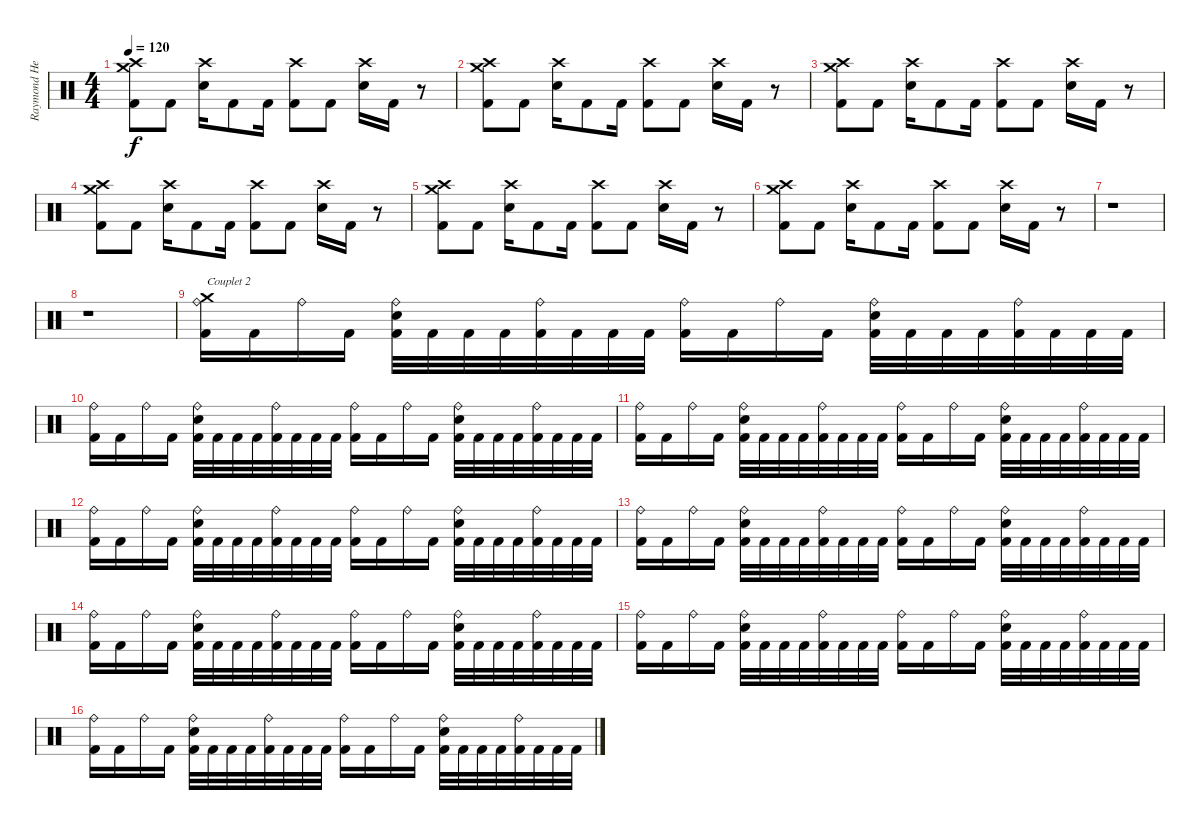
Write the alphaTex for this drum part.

\track ("Raymond Herrera" "Raymond He") {instrument percussion}
\staff {score}
\articulation defaults
\ts (4 4)
\tempo 120
\clef neutral
\ks c
("Crash medium (hit)" "Crash high (hit)" "Kick (hit) 2").8{dy f} "Kick (hit) 2".8 ("Crash high (hit)" "Electric Snare (hit)").16 "Kick (hit) 2".8 "Kick (hit) 2".16 ("Crash high (hit)" "Kick (hit) 2").8 "Kick (hit) 2".8 ("Crash high (hit)" "Electric Snare (hit)").16 "Kick (hit) 2".16 r.8 |
("Crash medium (hit)" "Crash high (hit)" "Kick (hit) 2").8 "Kick (hit) 2".8 ("Crash high (hit)" "Electric Snare (hit)").16 "Kick (hit) 2".8 "Kick (hit) 2".16 ("Crash high (hit)" "Kick (hit) 2").8 "Kick (hit) 2".8 ("Crash high (hit)" "Electric Snare (hit)").16 "Kick (hit) 2".16 r.8 |
("Crash medium (hit)" "Crash high (hit)" "Kick (hit) 2").8 "Kick (hit) 2".8 ("Crash high (hit)" "Electric Snare (hit)").16 "Kick (hit) 2".8 "Kick (hit) 2".16 ("Crash high (hit)" "Kick (hit) 2").8 "Kick (hit) 2".8 ("Crash high (hit)" "Electric Snare (hit)").16 "Kick (hit) 2".16 r.8 |
("Crash medium (hit)" "Crash high (hit)" "Kick (hit) 2").8 "Kick (hit) 2".8 ("Crash high (hit)" "Electric Snare (hit)").16 "Kick (hit) 2".8 "Kick (hit) 2".16 ("Crash high (hit)" "Kick (hit) 2").8 "Kick (hit) 2".8 ("Crash high (hit)" "Electric Snare (hit)").16 "Kick (hit) 2".16 r.8 |
("Crash medium (hit)" "Crash high (hit)" "Kick (hit) 2").8 "Kick (hit) 2".8 ("Crash high (hit)" "Electric Snare (hit)").16 "Kick (hit) 2".8 "Kick (hit) 2".16 ("Crash high (hit)" "Kick (hit) 2").8 "Kick (hit) 2".8 ("Crash high (hit)" "Electric Snare (hit)").16 "Kick (hit) 2".16 r.8 |
("Crash medium (hit)" "Crash high (hit)" "Kick (hit) 2").8 "Kick (hit) 2".8 ("Crash high (hit)" "Electric Snare (hit)").16 "Kick (hit) 2".8 "Kick (hit) 2".16 ("Crash high (hit)" "Kick (hit) 2").8 "Kick (hit) 2".8 ("Crash high (hit)" "Electric Snare (hit)").16 "Kick (hit) 2".16 r.8 |
r.1 |
r.1 |
("Crash medium (hit)" "Ride (bell)" "Kick (hit) 2").16{txt "Couplet 2"} "Kick (hit) 2".16 "Ride (bell)".16 "Kick (hit) 2".16 ("Electric Snare (hit)" "Ride (bell)" "Kick (hit) 2").32 "Kick (hit) 2".32 "Kick (hit) 2".32 "Kick (hit) 2".32 ("Ride (bell)" "Kick (hit) 2").32 "Kick (hit) 2".32 "Kick (hit) 2".32 "Kick (hit) 2".32 ("Ride (bell)" "Kick (hit) 2").16 "Kick (hit) 2".16 "Ride (bell)".16 "Kick (hit) 2".16 ("Electric Snare (hit)" "Ride (bell)" "Kick (hit) 2").32 "Kick (hit) 2".32 "Kick (hit) 2".32 "Kick (hit) 2".32 ("Ride (bell)" "Kick (hit) 2").32 "Kick (hit) 2".32 "Kick (hit) 2".32 "Kick (hit) 2".32 |
("Ride (bell)" "Kick (hit) 2").16 "Kick (hit) 2".16 "Ride (bell)".16 "Kick (hit) 2".16 ("Electric Snare (hit)" "Ride (bell)" "Kick (hit) 2").32 "Kick (hit) 2".32 "Kick (hit) 2".32 "Kick (hit) 2".32 ("Ride (bell)" "Kick (hit) 2").32 "Kick (hit) 2".32 "Kick (hit) 2".32 "Kick (hit) 2".32 ("Ride (bell)" "Kick (hit) 2").16 "Kick (hit) 2".16 "Ride (bell)".16 "Kick (hit) 2".16 ("Electric Snare (hit)" "Ride (bell)" "Kick (hit) 2").32 "Kick (hit) 2".32 "Kick (hit) 2".32 "Kick (hit) 2".32 ("Ride (bell)" "Kick (hit) 2").32 "Kick (hit) 2".32 "Kick (hit) 2".32 "Kick (hit) 2".32 |
("Ride (bell)" "Kick (hit) 2").16 "Kick (hit) 2".16 "Ride (bell)".16 "Kick (hit) 2".16 ("Electric Snare (hit)" "Ride (bell)" "Kick (hit) 2").32 "Kick (hit) 2".32 "Kick (hit) 2".32 "Kick (hit) 2".32 ("Ride (bell)" "Kick (hit) 2").32 "Kick (hit) 2".32 "Kick (hit) 2".32 "Kick (hit) 2".32 ("Ride (bell)" "Kick (hit) 2").16 "Kick (hit) 2".16 "Ride (bell)".16 "Kick (hit) 2".16 ("Electric Snare (hit)" "Ride (bell)" "Kick (hit) 2").32 "Kick (hit) 2".32 "Kick (hit) 2".32 "Kick (hit) 2".32 ("Ride (bell)" "Kick (hit) 2").32 "Kick (hit) 2".32 "Kick (hit) 2".32 "Kick (hit) 2".32 |
("Ride (bell)" "Kick (hit) 2").16 "Kick (hit) 2".16 "Ride (bell)".16 "Kick (hit) 2".16 ("Electric Snare (hit)" "Ride (bell)" "Kick (hit) 2").32 "Kick (hit) 2".32 "Kick (hit) 2".32 "Kick (hit) 2".32 ("Ride (bell)" "Kick (hit) 2").32 "Kick (hit) 2".32 "Kick (hit) 2".32 "Kick (hit) 2".32 ("Ride (bell)" "Kick (hit) 2").16 "Kick (hit) 2".16 "Ride (bell)".16 "Kick (hit) 2".16 ("Electric Snare (hit)" "Ride (bell)" "Kick (hit) 2").32 "Kick (hit) 2".32 "Kick (hit) 2".32 "Kick (hit) 2".32 ("Ride (bell)" "Kick (hit) 2").32 "Kick (hit) 2".32 "Kick (hit) 2".32 "Kick (hit) 2".32 |
("Ride (bell)" "Kick (hit) 2").16 "Kick (hit) 2".16 "Ride (bell)".16 "Kick (hit) 2".16 ("Electric Snare (hit)" "Ride (bell)" "Kick (hit) 2").32 "Kick (hit) 2".32 "Kick (hit) 2".32 "Kick (hit) 2".32 ("Ride (bell)" "Kick (hit) 2").32 "Kick (hit) 2".32 "Kick (hit) 2".32 "Kick (hit) 2".32 ("Ride (bell)" "Kick (hit) 2").16 "Kick (hit) 2".16 "Ride (bell)".16 "Kick (hit) 2".16 ("Electric Snare (hit)" "Ride (bell)" "Kick (hit) 2").32 "Kick (hit) 2".32 "Kick (hit) 2".32 "Kick (hit) 2".32 ("Ride (bell)" "Kick (hit) 2").32 "Kick (hit) 2".32 "Kick (hit) 2".32 "Kick (hit) 2".32 |
("Ride (bell)" "Kick (hit) 2").16 "Kick (hit) 2".16 "Ride (bell)".16 "Kick (hit) 2".16 ("Electric Snare (hit)" "Ride (bell)" "Kick (hit) 2").32 "Kick (hit) 2".32 "Kick (hit) 2".32 "Kick (hit) 2".32 ("Ride (bell)" "Kick (hit) 2").32 "Kick (hit) 2".32 "Kick (hit) 2".32 "Kick (hit) 2".32 ("Ride (bell)" "Kick (hit) 2").16 "Kick (hit) 2".16 "Ride (bell)".16 "Kick (hit) 2".16 ("Electric Snare (hit)" "Ride (bell)" "Kick (hit) 2").32 "Kick (hit) 2".32 "Kick (hit) 2".32 "Kick (hit) 2".32 ("Ride (bell)" "Kick (hit) 2").32 "Kick (hit) 2".32 "Kick (hit) 2".32 "Kick (hit) 2".32 |
("Ride (bell)" "Kick (hit) 2").16 "Kick (hit) 2".16 "Ride (bell)".16 "Kick (hit) 2".16 ("Electric Snare (hit)" "Ride (bell)" "Kick (hit) 2").32 "Kick (hit) 2".32 "Kick (hit) 2".32 "Kick (hit) 2".32 ("Ride (bell)" "Kick (hit) 2").32 "Kick (hit) 2".32 "Kick (hit) 2".32 "Kick (hit) 2".32 ("Ride (bell)" "Kick (hit) 2").16 "Kick (hit) 2".16 "Ride (bell)".16 "Kick (hit) 2".16 ("Electric Snare (hit)" "Ride (bell)" "Kick (hit) 2").32 "Kick (hit) 2".32 "Kick (hit) 2".32 "Kick (hit) 2".32 ("Ride (bell)" "Kick (hit) 2").32 "Kick (hit) 2".32 "Kick (hit) 2".32 "Kick (hit) 2".32 |
("Ride (bell)" "Kick (hit) 2").16 "Kick (hit) 2".16 "Ride (bell)".16 "Kick (hit) 2".16 ("Electric Snare (hit)" "Ride (bell)" "Kick (hit) 2").32 "Kick (hit) 2".32 "Kick (hit) 2".32 "Kick (hit) 2".32 ("Ride (bell)" "Kick (hit) 2").32 "Kick (hit) 2".32 "Kick (hit) 2".32 "Kick (hit) 2".32 ("Ride (bell)" "Kick (hit) 2").16 "Kick (hit) 2".16 "Ride (bell)".16 "Kick (hit) 2".16 ("Electric Snare (hit)" "Ride (bell)" "Kick (hit) 2").32 "Kick (hit) 2".32 "Kick (hit) 2".32 "Kick (hit) 2".32 ("Ride (bell)" "Kick (hit) 2").32 "Kick (hit) 2".32 "Kick (hit) 2".32 "Kick (hit) 2".32
